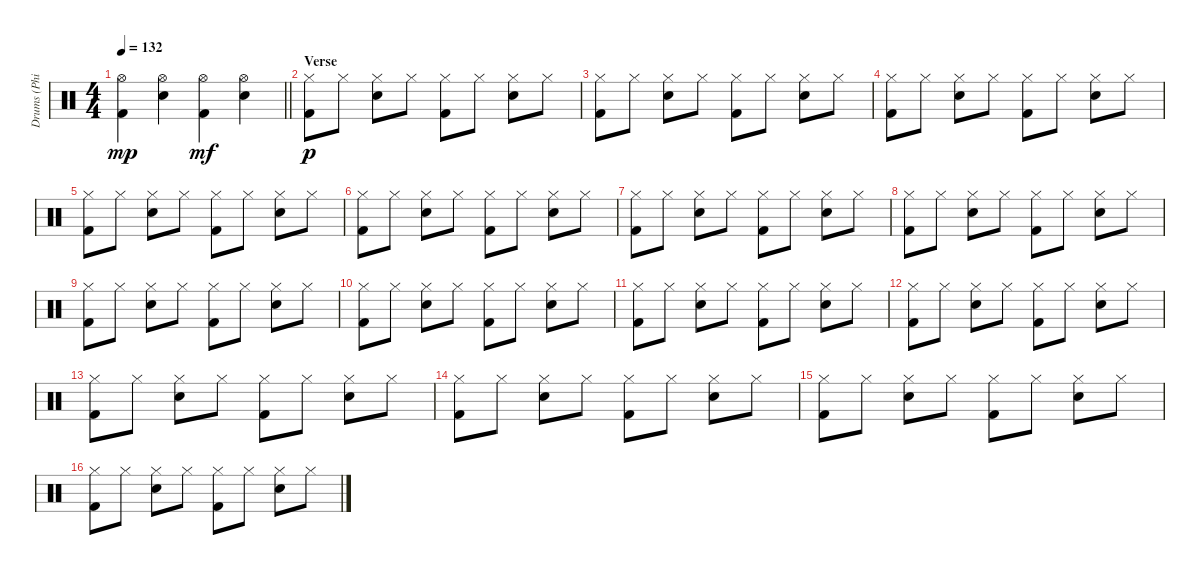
\track ("Drums (Phil Rudd)" "Drums (Phi") {instrument percussion}
\staff {score}
\articulation defaults
\ts (4 4)
\tempo 132
\clef neutral
\barLineRight lightlight
\ks c
("Hi-Hat (open)" "Kick (hit) 2").4{dy mp} ("Hi-Hat (open)" "Snare (hit) 2").4 ("Hi-Hat (open)" "Kick (hit) 2").4{dy mf} ("Hi-Hat (open)" "Snare (hit) 2").4 |
\section ("" "Verse")
("Hi-Hat (closed)" "Kick (hit) 2").8{dy p} "Hi-Hat (closed)".8 ("Hi-Hat (closed)" "Snare (hit) 2").8 "Hi-Hat (closed)".8 ("Hi-Hat (closed)" "Kick (hit) 2").8 "Hi-Hat (closed)".8 ("Hi-Hat (closed)" "Snare (hit) 2").8 "Hi-Hat (closed)".8 |
("Hi-Hat (closed)" "Kick (hit) 2").8 "Hi-Hat (closed)".8 ("Hi-Hat (closed)" "Snare (hit) 2").8 "Hi-Hat (closed)".8 ("Hi-Hat (closed)" "Kick (hit) 2").8 "Hi-Hat (closed)".8 ("Hi-Hat (closed)" "Snare (hit) 2").8 "Hi-Hat (closed)".8 |
("Hi-Hat (closed)" "Kick (hit) 2").8 "Hi-Hat (closed)".8 ("Hi-Hat (closed)" "Snare (hit) 2").8 "Hi-Hat (closed)".8 ("Hi-Hat (closed)" "Kick (hit) 2").8 "Hi-Hat (closed)".8 ("Hi-Hat (closed)" "Snare (hit) 2").8 "Hi-Hat (closed)".8 |
("Hi-Hat (closed)" "Kick (hit) 2").8 "Hi-Hat (closed)".8 ("Hi-Hat (closed)" "Snare (hit) 2").8 "Hi-Hat (closed)".8 ("Hi-Hat (closed)" "Kick (hit) 2").8 "Hi-Hat (closed)".8 ("Hi-Hat (closed)" "Snare (hit) 2").8 "Hi-Hat (closed)".8 |
("Hi-Hat (closed)" "Kick (hit) 2").8 "Hi-Hat (closed)".8 ("Hi-Hat (closed)" "Snare (hit) 2").8 "Hi-Hat (closed)".8 ("Hi-Hat (closed)" "Kick (hit) 2").8 "Hi-Hat (closed)".8 ("Hi-Hat (closed)" "Snare (hit) 2").8 "Hi-Hat (closed)".8 |
("Hi-Hat (closed)" "Kick (hit) 2").8 "Hi-Hat (closed)".8 ("Hi-Hat (closed)" "Snare (hit) 2").8 "Hi-Hat (closed)".8 ("Hi-Hat (closed)" "Kick (hit) 2").8 "Hi-Hat (closed)".8 ("Hi-Hat (closed)" "Snare (hit) 2").8 "Hi-Hat (closed)".8 |
("Hi-Hat (closed)" "Kick (hit) 2").8 "Hi-Hat (closed)".8 ("Hi-Hat (closed)" "Snare (hit) 2").8 "Hi-Hat (closed)".8 ("Hi-Hat (closed)" "Kick (hit) 2").8 "Hi-Hat (closed)".8 ("Hi-Hat (closed)" "Snare (hit) 2").8 "Hi-Hat (closed)".8 |
("Hi-Hat (closed)" "Kick (hit) 2").8 "Hi-Hat (closed)".8 ("Hi-Hat (closed)" "Snare (hit) 2").8 "Hi-Hat (closed)".8 ("Hi-Hat (closed)" "Kick (hit) 2").8 "Hi-Hat (closed)".8 ("Hi-Hat (closed)" "Snare (hit) 2").8 "Hi-Hat (closed)".8 |
("Hi-Hat (closed)" "Kick (hit) 2").8 "Hi-Hat (closed)".8 ("Hi-Hat (closed)" "Snare (hit) 2").8 "Hi-Hat (closed)".8 ("Hi-Hat (closed)" "Kick (hit) 2").8 "Hi-Hat (closed)".8 ("Hi-Hat (closed)" "Snare (hit) 2").8 "Hi-Hat (closed)".8 |
("Hi-Hat (closed)" "Kick (hit) 2").8 "Hi-Hat (closed)".8 ("Hi-Hat (closed)" "Snare (hit) 2").8 "Hi-Hat (closed)".8 ("Hi-Hat (closed)" "Kick (hit) 2").8 "Hi-Hat (closed)".8 ("Hi-Hat (closed)" "Snare (hit) 2").8 "Hi-Hat (closed)".8 |
("Hi-Hat (closed)" "Kick (hit) 2").8 "Hi-Hat (closed)".8 ("Hi-Hat (closed)" "Snare (hit) 2").8 "Hi-Hat (closed)".8 ("Hi-Hat (closed)" "Kick (hit) 2").8 "Hi-Hat (closed)".8 ("Hi-Hat (closed)" "Snare (hit) 2").8 "Hi-Hat (closed)".8 |
("Hi-Hat (closed)" "Kick (hit) 2").8 "Hi-Hat (closed)".8 ("Hi-Hat (closed)" "Snare (hit) 2").8 "Hi-Hat (closed)".8 ("Hi-Hat (closed)" "Kick (hit) 2").8 "Hi-Hat (closed)".8 ("Hi-Hat (closed)" "Snare (hit) 2").8 "Hi-Hat (closed)".8 |
("Hi-Hat (closed)" "Kick (hit) 2").8 "Hi-Hat (closed)".8 ("Hi-Hat (closed)" "Snare (hit) 2").8 "Hi-Hat (closed)".8 ("Hi-Hat (closed)" "Kick (hit) 2").8 "Hi-Hat (closed)".8 ("Hi-Hat (closed)" "Snare (hit) 2").8 "Hi-Hat (closed)".8 |
("Hi-Hat (closed)" "Kick (hit) 2").8 "Hi-Hat (closed)".8 ("Hi-Hat (closed)" "Snare (hit) 2").8 "Hi-Hat (closed)".8 ("Hi-Hat (closed)" "Kick (hit) 2").8 "Hi-Hat (closed)".8 ("Hi-Hat (closed)" "Snare (hit) 2").8 "Hi-Hat (closed)".8 |
("Hi-Hat (closed)" "Kick (hit) 2").8 "Hi-Hat (closed)".8 ("Hi-Hat (closed)" "Snare (hit) 2").8 "Hi-Hat (closed)".8 ("Hi-Hat (closed)" "Kick (hit) 2").8 "Hi-Hat (closed)".8 ("Hi-Hat (closed)" "Snare (hit) 2").8 "Hi-Hat (closed)".8
